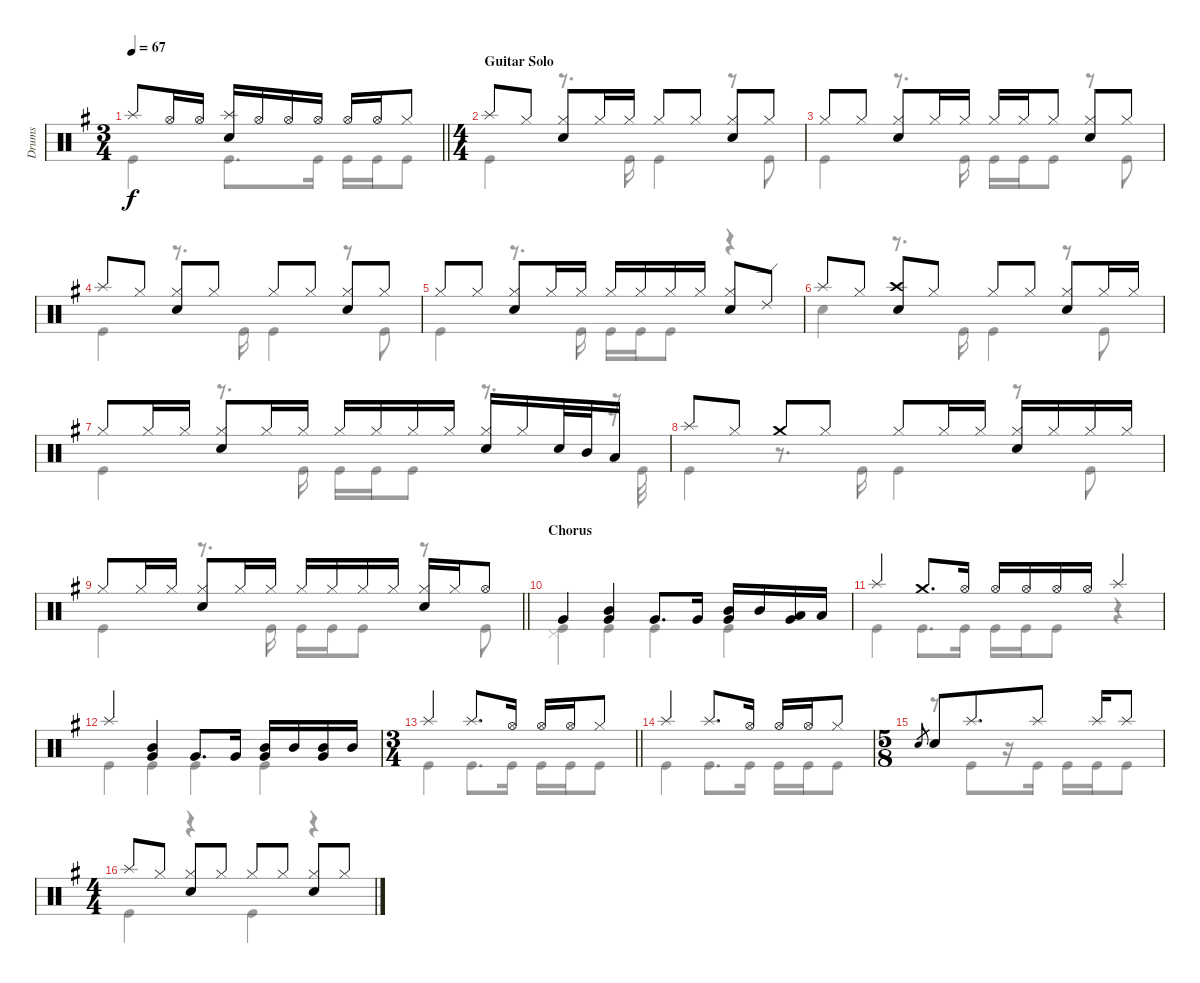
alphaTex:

\track ("Drums" "Drums") {instrument percussion}
\staff {score}
\articulation defaults
\voice
\ts (3 4)
\tempo 67
\clef neutral
\barLineRight lightlight
\ks eminor "Splash (hit)".8{dy f} "Hi-Hat (open)".16 "Hi-Hat (open)".16
("Splash (hit)" "Snare (hit) 2").16 "Hi-Hat (open)".16 "Hi-Hat (open)".16 "Hi-Hat (open)".16 "Hi-Hat (open)".16 "Hi-Hat (open)".16 "Hi-Hat (closed)".8 |
\ts (4 4)
\section ("" "Guitar Solo")
"Splash (hit)".8 "Hi-Hat (closed)".8 ("Hi-Hat (closed)" "Snare (hit) 2").8 "Hi-Hat (closed)".16 "Hi-Hat (closed)".16 "Hi-Hat (closed)".8 "Hi-Hat (closed)".8 ("Hi-Hat (closed)" "Snare (hit) 2").8 "Hi-Hat (closed)".8 |
"Hi-Hat (closed)".8 "Hi-Hat (closed)".8 ("Hi-Hat (closed)" "Snare (hit) 2").8 "Hi-Hat (closed)".16 "Hi-Hat (closed)".16 "Hi-Hat (closed)".16 "Hi-Hat (closed)".16 "Hi-Hat (closed)".8 ("Hi-Hat (closed)" "Snare (hit) 2").8 "Hi-Hat (closed)".8 |
"Splash (hit)".8 "Hi-Hat (closed)".8 ("Hi-Hat (closed)" "Snare (hit) 2").8 "Hi-Hat (closed)".8 "Hi-Hat (closed)".8 "Hi-Hat (closed)".8 ("Hi-Hat (closed)" "Snare (hit) 2").8 "Hi-Hat (closed)".8 |
"Hi-Hat (closed)".8 "Hi-Hat (closed)".8 ("Hi-Hat (closed)" "Snare (hit) 2").8 "Hi-Hat (closed)".16 "Hi-Hat (closed)".16 "Hi-Hat (closed)".16 "Hi-Hat (closed)".16 "Hi-Hat (closed)".16 "Hi-Hat (closed)".16 ("Hi-Hat (closed)" "Snare (hit) 2").8 "Ride (edge) 2".8 |
"Splash (hit)".8 "Hi-Hat (closed)".8 ("Crash high (hit)" "Snare (hit) 2").8 "Hi-Hat (closed)".8 "Hi-Hat (closed)".8 "Hi-Hat (closed)".8 ("Hi-Hat (closed)" "Snare (hit) 2").8 "Hi-Hat (closed)".16 "Hi-Hat (closed)".16 |
"Hi-Hat (closed)".8 "Hi-Hat (closed)".16 "Hi-Hat (closed)".16 ("Hi-Hat (closed)" "Snare (hit) 2").8 "Hi-Hat (closed)".16 "Hi-Hat (closed)".16 "Hi-Hat (closed)".16 "Hi-Hat (closed)".16 "Hi-Hat (closed)".16 "Hi-Hat (closed)".16 ("Hi-Hat (closed)" "Snare (hit) 2").16 "Hi-Hat (closed)".16 "Snare (hit) 2".32 "Mid Tom (hit)".32 "Low Tom (hit)".16 |
"Splash (hit)".8 "Hi-Hat (closed)".8 "Crash medium (hit)".8 "Hi-Hat (closed)".8 "Hi-Hat (closed)".8 "Hi-Hat (closed)".16 "Hi-Hat (closed)".16 ("Hi-Hat (closed)" "Snare (hit) 2").16 "Hi-Hat (closed)".16 "Hi-Hat (closed)".16 "Hi-Hat (closed)".16 |
\barLineRight lightlight "Hi-Hat (closed)".8 "Hi-Hat (closed)".16 "Hi-Hat (closed)".16
("Hi-Hat (closed)" "Snare (hit) 2").8 "Hi-Hat (closed)".16 "Hi-Hat (closed)".16 "Hi-Hat (closed)".16 "Hi-Hat (closed)".16 "Hi-Hat (closed)".16 "Hi-Hat (closed)".16 ("Hi-Hat (closed)" "Snare (hit) 2").16 "Hi-Hat (closed)".16 "Hi-Hat (open)".8 |
\section ("" "Chorus")
"Very Low Tom (hit)".4 ("Very Low Tom (hit)" "Mid Tom (hit)").4 "Very Low Tom (hit)".8{d} "Very Low Tom (hit)".16 ("Very Low Tom (hit)" "Mid Tom (hit)").16 "Mid Tom (hit)".16 ("Very Low Tom (hit)" "Low Tom (hit)").16 "Low Tom (hit)".16 |
"Splash (hit)".4 "Crash medium (hit)".8{d} "Hi-Hat (open)".16 "Hi-Hat (open)".16 "Hi-Hat (open)".16 "Hi-Hat (open)".16 "Hi-Hat (open)".16 "Splash (hit)".4 |
"Splash (hit)".4 ("Very Low Tom (hit)" "Mid Tom (hit)").4 "Very Low Tom (hit)".8{d} "Very Low Tom (hit)".16 ("Mid Tom (hit)" "Very Low Tom (hit)").16 "Mid Tom (hit)".16 ("Mid Tom (hit)" "Very Low Tom (hit)").16 "Mid Tom (hit)".16 |
\ts (3 4)
\barLineRight lightlight "Splash (hit)".4 "Splash (hit)".8{d} "Hi-Hat (open)".16 "Hi-Hat (open)".16 "Hi-Hat (open)".16 "Hi-Hat (closed)".8
|
"Splash (hit)".4 "Splash (hit)".8{d} "Hi-Hat (open)".16 "Hi-Hat (open)".16 "Hi-Hat (open)".16 "Hi-Hat (closed)".8 |
\ts (5 8)
"Snare (hit) 2".8{gr} "Snare (hit) 2".8 "Splash (hit)".8{d} "Splash (hit)".8 "Splash (hit)".16 "Splash (hit)".8 |
\ts (4 4)
"Splash (hit)".8 "Hi-Hat (closed)".8 ("Hi-Hat (closed)" "Snare (hit) 2").8 "Hi-Hat (closed)".8 "Hi-Hat (closed)".8 "Hi-Hat (closed)".8 ("Hi-Hat (closed)" "Snare (hit) 2").8 "Hi-Hat (closed)".8
\voice
\clef neutral
\ottava regular
\simile none
\barLineRight lightlight
\ks eminor "Kick (hit)".4{dy f} "Kick (hit)".8{d} "Kick (hit)".16 "Kick (hit)".16 "Kick (hit)".16 "Kick (hit)".8
|
"Kick (hit)".4 r.8{d} "Kick (hit)".16 "Kick (hit)".4 r.8 "Kick (hit)".8 |
"Kick (hit)".4 r.8{d} "Kick (hit)".16 "Kick (hit)".16 "Kick (hit)".16 "Kick (hit)".8 r.8 "Kick (hit)".8 |
"Kick (hit)".4 r.8{d} "Kick (hit)".16 "Kick (hit)".4 r.8 "Kick (hit)".8 |
"Kick (hit)".4 r.8{d} "Kick (hit)".16 "Kick (hit)".16 "Kick (hit)".16 "Kick (hit)".8 r.4 |
"Snare (hit) 2".4 r.8{d} "Kick (hit)".16 "Kick (hit)".4 r.8 "Kick (hit)".8 |
"Kick (hit)".4 r.8{d} "Kick (hit)".16 "Kick (hit)".16 "Kick (hit)".16 "Kick (hit)".8 r.8{d} r.32 "Kick (hit)".32 |
"Kick (hit)".4 r.8{d} "Kick (hit)".16 "Kick (hit)".4 r.8 "Kick (hit)".8 |
\barLineRight lightlight "Kick (hit)".4
r.8{d} "Kick (hit)".16 "Kick (hit)".16 "Kick (hit)".16 "Kick (hit)".8 r.8 "Kick (hit)".8 |
("Kick (hit)" "Pedal Hi-Hat (hit)").4 "Kick (hit)".4 "Kick (hit)".4 "Kick (hit)".4 |
"Kick (hit)".4 "Kick (hit)".8{d} "Kick (hit)".16 "Kick (hit)".16 "Kick (hit)".16 "Kick (hit)".8 r.4 |
"Kick (hit)".4 "Kick (hit)".4 "Kick (hit)".4 "Kick (hit)".4 |
\barLineRight lightlight "Kick (hit)".4 "Kick (hit)".8{d} "Kick (hit)".16 "Kick (hit)".16 "Kick (hit)".16 "Kick (hit)".8
|
"Kick (hit)".4 "Kick (hit)".8{d} "Kick (hit)".16 "Kick (hit)".16 "Kick (hit)".16 "Kick (hit)".8 |
r.8 "Kick (hit)".8 r.16 "Kick (hit)".16 "Kick (hit)".16 "Kick (hit)".16 "Kick (hit)".8 |
"Kick (hit)".4 r.4 "Kick (hit)".4 r.4
